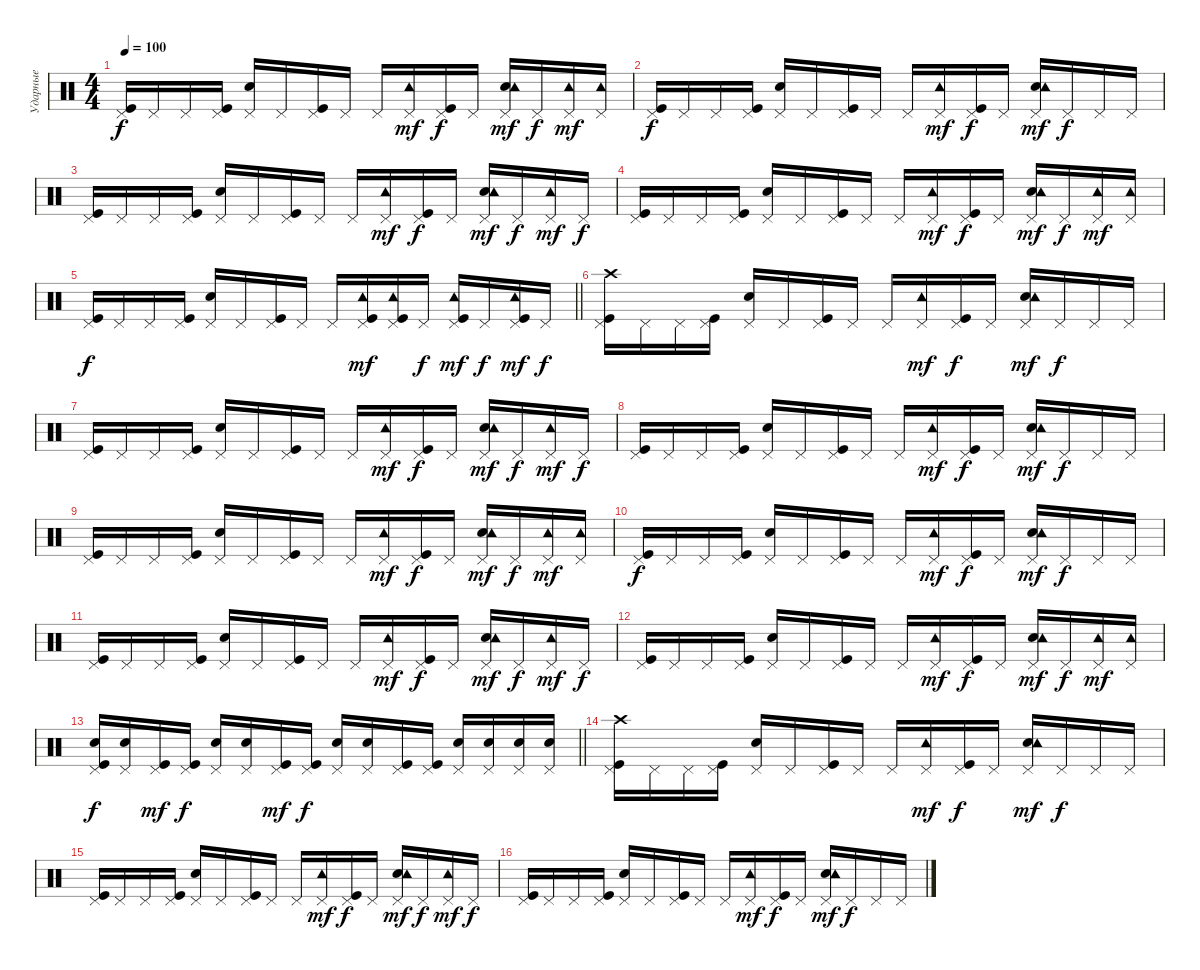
\track ("Ударные" "Ударные") {instrument percussion}
\staff {score}
\articulation defaults
\ts (4 4)
\tempo 100
\clef neutral
\ks c
("Kick (hit)" "Pedal Hi-Hat (hit)").16{dy f} "Pedal Hi-Hat (hit)".16 "Pedal Hi-Hat (hit)".16 ("Kick (hit)" "Pedal Hi-Hat (hit)").16 ("Pedal Hi-Hat (hit)" "Electric Snare (hit)").16 "Pedal Hi-Hat (hit)".16 ("Kick (hit)" "Pedal Hi-Hat (hit)").16 "Pedal Hi-Hat (hit)".16 "Pedal Hi-Hat (hit)".16 ("Pedal Hi-Hat (hit)" "Tambourine (hit)").16{dy mf} ("Kick (hit)" "Pedal Hi-Hat (hit)").16{dy f} "Pedal Hi-Hat (hit)".16 ("Pedal Hi-Hat (hit)" "Electric Snare (hit)" "Tambourine (hit)").16{dy mf} "Pedal Hi-Hat (hit)".16{dy f} ("Pedal Hi-Hat (hit)" "Tambourine (hit)").16{dy mf} ("Pedal Hi-Hat (hit)" "Tambourine (hit)").16 |
("Kick (hit)" "Pedal Hi-Hat (hit)").16{dy f} "Pedal Hi-Hat (hit)".16 "Pedal Hi-Hat (hit)".16 ("Kick (hit)" "Pedal Hi-Hat (hit)").16 ("Pedal Hi-Hat (hit)" "Electric Snare (hit)").16 "Pedal Hi-Hat (hit)".16 ("Kick (hit)" "Pedal Hi-Hat (hit)").16 "Pedal Hi-Hat (hit)".16 "Pedal Hi-Hat (hit)".16 ("Pedal Hi-Hat (hit)" "Tambourine (hit)").16{dy mf} ("Kick (hit)" "Pedal Hi-Hat (hit)").16{dy f} "Pedal Hi-Hat (hit)".16 ("Pedal Hi-Hat (hit)" "Electric Snare (hit)" "Tambourine (hit)").16{dy mf} "Pedal Hi-Hat (hit)".16{dy f} "Pedal Hi-Hat (hit)".16 "Pedal Hi-Hat (hit)".16 |
("Kick (hit)" "Pedal Hi-Hat (hit)").16 "Pedal Hi-Hat (hit)".16 "Pedal Hi-Hat (hit)".16 ("Kick (hit)" "Pedal Hi-Hat (hit)").16 ("Pedal Hi-Hat (hit)" "Electric Snare (hit)").16 "Pedal Hi-Hat (hit)".16 ("Kick (hit)" "Pedal Hi-Hat (hit)").16 "Pedal Hi-Hat (hit)".16 "Pedal Hi-Hat (hit)".16 ("Pedal Hi-Hat (hit)" "Tambourine (hit)").16{dy mf} ("Kick (hit)" "Pedal Hi-Hat (hit)").16{dy f} "Pedal Hi-Hat (hit)".16 ("Pedal Hi-Hat (hit)" "Electric Snare (hit)" "Tambourine (hit)").16{dy mf} "Pedal Hi-Hat (hit)".16{dy f} ("Pedal Hi-Hat (hit)" "Tambourine (hit)").16{dy mf} "Pedal Hi-Hat (hit)".16{dy f} |
("Kick (hit)" "Pedal Hi-Hat (hit)").16 "Pedal Hi-Hat (hit)".16 "Pedal Hi-Hat (hit)".16 ("Kick (hit)" "Pedal Hi-Hat (hit)").16 ("Pedal Hi-Hat (hit)" "Electric Snare (hit)").16 "Pedal Hi-Hat (hit)".16 ("Kick (hit)" "Pedal Hi-Hat (hit)").16 "Pedal Hi-Hat (hit)".16 "Pedal Hi-Hat (hit)".16 ("Pedal Hi-Hat (hit)" "Tambourine (hit)").16{dy mf} ("Kick (hit)" "Pedal Hi-Hat (hit)").16{dy f} "Pedal Hi-Hat (hit)".16 ("Pedal Hi-Hat (hit)" "Electric Snare (hit)" "Tambourine (hit)").16{dy mf} "Pedal Hi-Hat (hit)".16{dy f} ("Pedal Hi-Hat (hit)" "Tambourine (hit)").16{dy mf} ("Pedal Hi-Hat (hit)" "Tambourine (hit)").16 |
\barLineRight lightlight
("Kick (hit)" "Pedal Hi-Hat (hit)").16{dy f} "Pedal Hi-Hat (hit)".16 "Pedal Hi-Hat (hit)".16 ("Kick (hit)" "Pedal Hi-Hat (hit)").16 ("Pedal Hi-Hat (hit)" "Electric Snare (hit)").16 "Pedal Hi-Hat (hit)".16 ("Kick (hit)" "Pedal Hi-Hat (hit)").16 "Pedal Hi-Hat (hit)".16 "Pedal Hi-Hat (hit)".16 ("Kick (hit)" "Pedal Hi-Hat (hit)" "Tambourine (hit)").16{dy mf} ("Kick (hit)" "Pedal Hi-Hat (hit)" "Tambourine (hit)").16 "Pedal Hi-Hat (hit)".16{dy f} ("Kick (hit)" "Pedal Hi-Hat (hit)" "Tambourine (hit)").16{dy mf} "Pedal Hi-Hat (hit)".16{dy f} ("Kick (hit)" "Pedal Hi-Hat (hit)" "Tambourine (hit)").16{dy mf} "Pedal Hi-Hat (hit)".16{dy f} |
("Kick (hit)" "Pedal Hi-Hat (hit)" "Crash high (hit)").16 "Pedal Hi-Hat (hit)".16 "Pedal Hi-Hat (hit)".16 ("Kick (hit)" "Pedal Hi-Hat (hit)").16 ("Pedal Hi-Hat (hit)" "Electric Snare (hit)").16 "Pedal Hi-Hat (hit)".16 ("Kick (hit)" "Pedal Hi-Hat (hit)").16 "Pedal Hi-Hat (hit)".16 "Pedal Hi-Hat (hit)".16 ("Pedal Hi-Hat (hit)" "Tambourine (hit)").16{dy mf} ("Kick (hit)" "Pedal Hi-Hat (hit)").16{dy f} "Pedal Hi-Hat (hit)".16 ("Pedal Hi-Hat (hit)" "Electric Snare (hit)" "Tambourine (hit)").16{dy mf} "Pedal Hi-Hat (hit)".16{dy f} "Pedal Hi-Hat (hit)".16 "Pedal Hi-Hat (hit)".16 |
("Kick (hit)" "Pedal Hi-Hat (hit)").16 "Pedal Hi-Hat (hit)".16 "Pedal Hi-Hat (hit)".16 ("Kick (hit)" "Pedal Hi-Hat (hit)").16 ("Pedal Hi-Hat (hit)" "Electric Snare (hit)").16 "Pedal Hi-Hat (hit)".16 ("Kick (hit)" "Pedal Hi-Hat (hit)").16 "Pedal Hi-Hat (hit)".16 "Pedal Hi-Hat (hit)".16 ("Pedal Hi-Hat (hit)" "Tambourine (hit)").16{dy mf} ("Kick (hit)" "Pedal Hi-Hat (hit)").16{dy f} "Pedal Hi-Hat (hit)".16 ("Pedal Hi-Hat (hit)" "Electric Snare (hit)" "Tambourine (hit)").16{dy mf} "Pedal Hi-Hat (hit)".16{dy f} ("Pedal Hi-Hat (hit)" "Tambourine (hit)").16{dy mf} "Pedal Hi-Hat (hit)".16{dy f} |
("Kick (hit)" "Pedal Hi-Hat (hit)").16 "Pedal Hi-Hat (hit)".16 "Pedal Hi-Hat (hit)".16 ("Kick (hit)" "Pedal Hi-Hat (hit)").16 ("Pedal Hi-Hat (hit)" "Electric Snare (hit)").16 "Pedal Hi-Hat (hit)".16 ("Kick (hit)" "Pedal Hi-Hat (hit)").16 "Pedal Hi-Hat (hit)".16 "Pedal Hi-Hat (hit)".16 ("Pedal Hi-Hat (hit)" "Tambourine (hit)").16{dy mf} ("Kick (hit)" "Pedal Hi-Hat (hit)").16{dy f} "Pedal Hi-Hat (hit)".16 ("Pedal Hi-Hat (hit)" "Electric Snare (hit)" "Tambourine (hit)").16{dy mf} "Pedal Hi-Hat (hit)".16{dy f} "Pedal Hi-Hat (hit)".16 "Pedal Hi-Hat (hit)".16 |
("Kick (hit)" "Pedal Hi-Hat (hit)").16 "Pedal Hi-Hat (hit)".16 "Pedal Hi-Hat (hit)".16 ("Kick (hit)" "Pedal Hi-Hat (hit)").16 ("Pedal Hi-Hat (hit)" "Electric Snare (hit)").16 "Pedal Hi-Hat (hit)".16 ("Kick (hit)" "Pedal Hi-Hat (hit)").16 "Pedal Hi-Hat (hit)".16 "Pedal Hi-Hat (hit)".16 ("Pedal Hi-Hat (hit)" "Tambourine (hit)").16{dy mf} ("Kick (hit)" "Pedal Hi-Hat (hit)").16{dy f} "Pedal Hi-Hat (hit)".16 ("Pedal Hi-Hat (hit)" "Electric Snare (hit)" "Tambourine (hit)").16{dy mf} "Pedal Hi-Hat (hit)".16{dy f} ("Pedal Hi-Hat (hit)" "Tambourine (hit)").16{dy mf} ("Pedal Hi-Hat (hit)" "Tambourine (hit)").16 |
("Kick (hit)" "Pedal Hi-Hat (hit)").16{dy f} "Pedal Hi-Hat (hit)".16 "Pedal Hi-Hat (hit)".16 ("Kick (hit)" "Pedal Hi-Hat (hit)").16 ("Pedal Hi-Hat (hit)" "Electric Snare (hit)").16 "Pedal Hi-Hat (hit)".16 ("Kick (hit)" "Pedal Hi-Hat (hit)").16 "Pedal Hi-Hat (hit)".16 "Pedal Hi-Hat (hit)".16 ("Pedal Hi-Hat (hit)" "Tambourine (hit)").16{dy mf} ("Kick (hit)" "Pedal Hi-Hat (hit)").16{dy f} "Pedal Hi-Hat (hit)".16 ("Pedal Hi-Hat (hit)" "Electric Snare (hit)" "Tambourine (hit)").16{dy mf} "Pedal Hi-Hat (hit)".16{dy f} "Pedal Hi-Hat (hit)".16 "Pedal Hi-Hat (hit)".16 |
("Kick (hit)" "Pedal Hi-Hat (hit)").16 "Pedal Hi-Hat (hit)".16 "Pedal Hi-Hat (hit)".16 ("Kick (hit)" "Pedal Hi-Hat (hit)").16 ("Pedal Hi-Hat (hit)" "Electric Snare (hit)").16 "Pedal Hi-Hat (hit)".16 ("Kick (hit)" "Pedal Hi-Hat (hit)").16 "Pedal Hi-Hat (hit)".16 "Pedal Hi-Hat (hit)".16 ("Pedal Hi-Hat (hit)" "Tambourine (hit)").16{dy mf} ("Kick (hit)" "Pedal Hi-Hat (hit)").16{dy f} "Pedal Hi-Hat (hit)".16 ("Pedal Hi-Hat (hit)" "Electric Snare (hit)" "Tambourine (hit)").16{dy mf} "Pedal Hi-Hat (hit)".16{dy f} ("Pedal Hi-Hat (hit)" "Tambourine (hit)").16{dy mf} "Pedal Hi-Hat (hit)".16{dy f} |
("Kick (hit)" "Pedal Hi-Hat (hit)").16 "Pedal Hi-Hat (hit)".16 "Pedal Hi-Hat (hit)".16 ("Kick (hit)" "Pedal Hi-Hat (hit)").16 ("Pedal Hi-Hat (hit)" "Electric Snare (hit)").16 "Pedal Hi-Hat (hit)".16 ("Kick (hit)" "Pedal Hi-Hat (hit)").16 "Pedal Hi-Hat (hit)".16 "Pedal Hi-Hat (hit)".16 ("Pedal Hi-Hat (hit)" "Tambourine (hit)").16{dy mf} ("Kick (hit)" "Pedal Hi-Hat (hit)").16{dy f} "Pedal Hi-Hat (hit)".16 ("Pedal Hi-Hat (hit)" "Electric Snare (hit)" "Tambourine (hit)").16{dy mf} "Pedal Hi-Hat (hit)".16{dy f} ("Pedal Hi-Hat (hit)" "Tambourine (hit)").16{dy mf} ("Pedal Hi-Hat (hit)" "Tambourine (hit)").16 |
\barLineRight lightlight
("Kick (hit)" "Pedal Hi-Hat (hit)" "Electric Snare (hit)").16{dy f} ("Pedal Hi-Hat (hit)" "Electric Snare (hit)").16 ("Kick (hit)" "Pedal Hi-Hat (hit)").16{dy mf} ("Kick (hit)" "Pedal Hi-Hat (hit)").16{dy f} ("Pedal Hi-Hat (hit)" "Electric Snare (hit)").16 ("Electric Snare (hit)" "Pedal Hi-Hat (hit)").16 ("Kick (hit)" "Pedal Hi-Hat (hit)").16{dy mf} ("Kick (hit)" "Pedal Hi-Hat (hit)").16{dy f} ("Electric Snare (hit)" "Pedal Hi-Hat (hit)").16 ("Electric Snare (hit)" "Pedal Hi-Hat (hit)").16 ("Pedal Hi-Hat (hit)" "Kick (hit)").16 ("Pedal Hi-Hat (hit)" "Kick (hit)").16 ("Electric Snare (hit)" "Pedal Hi-Hat (hit)").16 ("Electric Snare (hit)" "Pedal Hi-Hat (hit)").16 ("Electric Snare (hit)" "Pedal Hi-Hat (hit)").16 ("Electric Snare (hit)" "Pedal Hi-Hat (hit)").16 |
("Kick (hit)" "Pedal Hi-Hat (hit)" "Crash high (hit)").16 "Pedal Hi-Hat (hit)".16 "Pedal Hi-Hat (hit)".16 ("Kick (hit)" "Pedal Hi-Hat (hit)").16 ("Pedal Hi-Hat (hit)" "Electric Snare (hit)").16 "Pedal Hi-Hat (hit)".16 ("Kick (hit)" "Pedal Hi-Hat (hit)").16 "Pedal Hi-Hat (hit)".16 "Pedal Hi-Hat (hit)".16 ("Pedal Hi-Hat (hit)" "Tambourine (hit)").16{dy mf} ("Kick (hit)" "Pedal Hi-Hat (hit)").16{dy f} "Pedal Hi-Hat (hit)".16 ("Pedal Hi-Hat (hit)" "Electric Snare (hit)" "Tambourine (hit)").16{dy mf} "Pedal Hi-Hat (hit)".16{dy f} "Pedal Hi-Hat (hit)".16 "Pedal Hi-Hat (hit)".16 |
("Kick (hit)" "Pedal Hi-Hat (hit)").16 "Pedal Hi-Hat (hit)".16 "Pedal Hi-Hat (hit)".16 ("Kick (hit)" "Pedal Hi-Hat (hit)").16 ("Pedal Hi-Hat (hit)" "Electric Snare (hit)").16 "Pedal Hi-Hat (hit)".16 ("Kick (hit)" "Pedal Hi-Hat (hit)").16 "Pedal Hi-Hat (hit)".16 "Pedal Hi-Hat (hit)".16 ("Pedal Hi-Hat (hit)" "Tambourine (hit)").16{dy mf} ("Kick (hit)" "Pedal Hi-Hat (hit)").16{dy f} "Pedal Hi-Hat (hit)".16 ("Pedal Hi-Hat (hit)" "Electric Snare (hit)" "Tambourine (hit)").16{dy mf} "Pedal Hi-Hat (hit)".16{dy f} ("Pedal Hi-Hat (hit)" "Tambourine (hit)").16{dy mf} "Pedal Hi-Hat (hit)".16{dy f} |
("Kick (hit)" "Pedal Hi-Hat (hit)").16 "Pedal Hi-Hat (hit)".16 "Pedal Hi-Hat (hit)".16 ("Kick (hit)" "Pedal Hi-Hat (hit)").16 ("Pedal Hi-Hat (hit)" "Electric Snare (hit)").16 "Pedal Hi-Hat (hit)".16 ("Kick (hit)" "Pedal Hi-Hat (hit)").16 "Pedal Hi-Hat (hit)".16 "Pedal Hi-Hat (hit)".16 ("Pedal Hi-Hat (hit)" "Tambourine (hit)").16{dy mf} ("Kick (hit)" "Pedal Hi-Hat (hit)").16{dy f} "Pedal Hi-Hat (hit)".16 ("Pedal Hi-Hat (hit)" "Electric Snare (hit)" "Tambourine (hit)").16{dy mf} "Pedal Hi-Hat (hit)".16{dy f} "Pedal Hi-Hat (hit)".16 "Pedal Hi-Hat (hit)".16
